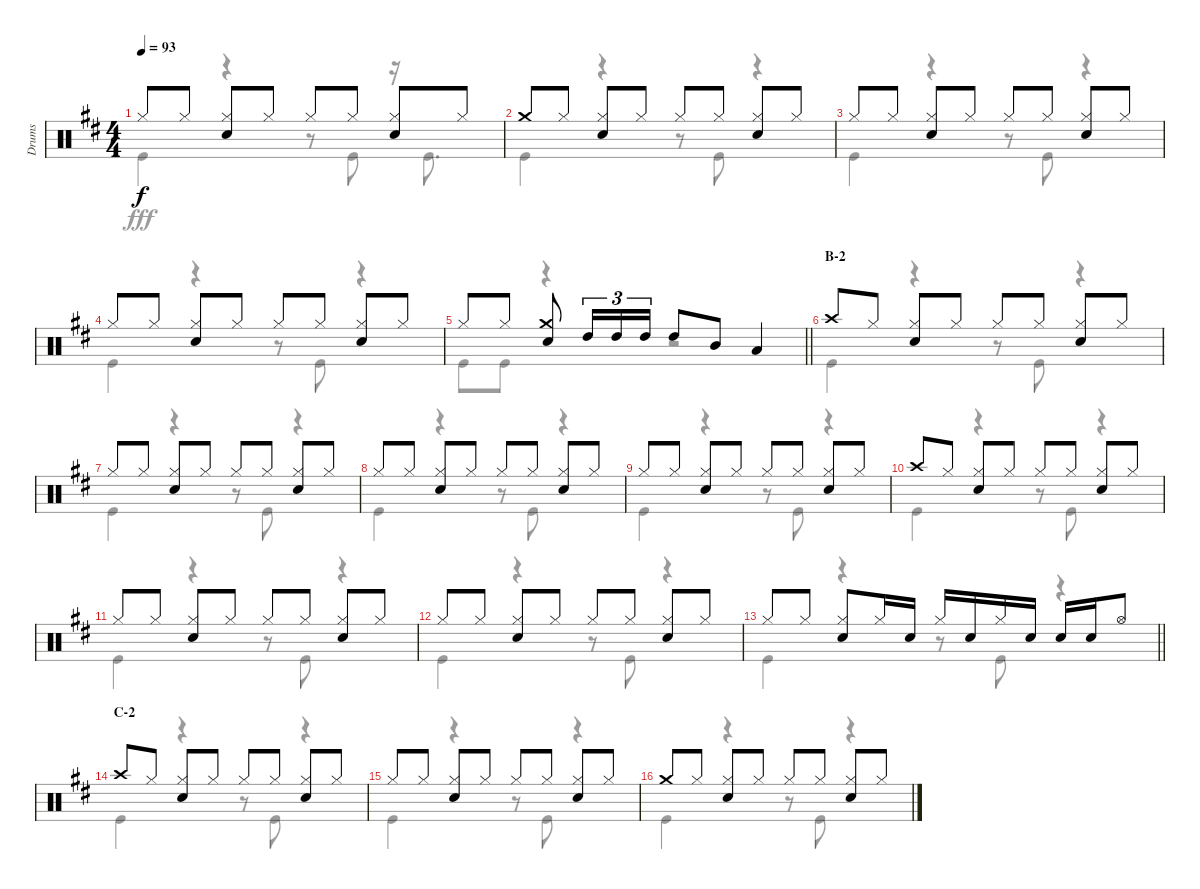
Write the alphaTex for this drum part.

\track ("Drums" "Drums") {instrument percussion}
\staff {score}
\articulation defaults
\voice
\ts (4 4)
\tempo 93
\clef neutral
\ks d "Hi-Hat (closed)".8{dy f} "Hi-Hat (closed)".8
("Hi-Hat (closed)" "Snare (hit) 2").8 "Hi-Hat (closed)".8 "Hi-Hat (closed)".8 "Hi-Hat (closed)".8 ("Hi-Hat (closed)" "Snare (hit) 2").8 "Hi-Hat (closed)".8 |
"Crash medium (hit)".8 "Hi-Hat (closed)".8 ("Hi-Hat (closed)" "Snare (hit) 2").8 "Hi-Hat (closed)".8 "Hi-Hat (closed)".8 "Hi-Hat (closed)".8 ("Hi-Hat (closed)" "Snare (hit) 2").8 "Hi-Hat (closed)".8 |
"Hi-Hat (closed)".8 "Hi-Hat (closed)".8 ("Hi-Hat (closed)" "Snare (hit) 2").8 "Hi-Hat (closed)".8 "Hi-Hat (closed)".8 "Hi-Hat (closed)".8 ("Hi-Hat (closed)" "Snare (hit) 2").8 "Hi-Hat (closed)".8 |
"Hi-Hat (closed)".8 "Hi-Hat (closed)".8 ("Hi-Hat (closed)" "Snare (hit) 2").8 "Hi-Hat (closed)".8 "Hi-Hat (closed)".8 "Hi-Hat (closed)".8 ("Hi-Hat (closed)" "Snare (hit) 2").8 "Hi-Hat (closed)".8 |
\barLineRight lightlight "Hi-Hat (closed)".8 "Hi-Hat (closed)".8
("Crash medium (hit)" "Snare (hit) 2").8 "High Tom (hit)".16{tu (3 2)} "High Tom (hit)".16{tu (3 2)} "High Tom (hit)".16{tu (3 2)} "High Tom (hit)".8 "Mid Tom (hit)".8 "Low Tom (hit)".4 |
\section ("" "B-2")
"Crash high (hit)".8 "Hi-Hat (closed)".8 ("Hi-Hat (closed)" "Snare (hit) 2").8 "Hi-Hat (closed)".8 "Hi-Hat (closed)".8 "Hi-Hat (closed)".8 ("Hi-Hat (closed)" "Snare (hit) 2").8 "Hi-Hat (closed)".8 |
"Hi-Hat (closed)".8 "Hi-Hat (closed)".8 ("Hi-Hat (closed)" "Snare (hit) 2").8 "Hi-Hat (closed)".8 "Hi-Hat (closed)".8 "Hi-Hat (closed)".8 ("Hi-Hat (closed)" "Snare (hit) 2").8 "Hi-Hat (closed)".8 |
"Hi-Hat (closed)".8 "Hi-Hat (closed)".8 ("Hi-Hat (closed)" "Snare (hit) 2").8 "Hi-Hat (closed)".8 "Hi-Hat (closed)".8 "Hi-Hat (closed)".8 ("Hi-Hat (closed)" "Snare (hit) 2").8 "Hi-Hat (closed)".8 |
"Hi-Hat (closed)".8 "Hi-Hat (closed)".8 ("Hi-Hat (closed)" "Snare (hit) 2").8 "Hi-Hat (closed)".8 "Hi-Hat (closed)".8 "Hi-Hat (closed)".8 ("Hi-Hat (closed)" "Snare (hit) 2").8 "Hi-Hat (closed)".8 |
"Crash high (hit)".8 "Hi-Hat (closed)".8 ("Hi-Hat (closed)" "Snare (hit) 2").8 "Hi-Hat (closed)".8 "Hi-Hat (closed)".8 "Hi-Hat (closed)".8 ("Hi-Hat (closed)" "Snare (hit) 2").8 "Hi-Hat (closed)".8 |
"Hi-Hat (closed)".8 "Hi-Hat (closed)".8 ("Hi-Hat (closed)" "Snare (hit) 2").8 "Hi-Hat (closed)".8 "Hi-Hat (closed)".8 "Hi-Hat (closed)".8 ("Hi-Hat (closed)" "Snare (hit) 2").8 "Hi-Hat (closed)".8 |
"Hi-Hat (closed)".8 "Hi-Hat (closed)".8 ("Hi-Hat (closed)" "Snare (hit) 2").8 "Hi-Hat (closed)".8 "Hi-Hat (closed)".8 "Hi-Hat (closed)".8 ("Hi-Hat (closed)" "Snare (hit) 2").8 "Hi-Hat (closed)".8 |
\barLineRight lightlight "Hi-Hat (closed)".8 "Hi-Hat (closed)".8
("Hi-Hat (closed)" "Snare (hit) 2").8 "Hi-Hat (closed)".16 "Snare (hit) 2".16 "Hi-Hat (closed)".16 "Snare (hit) 2".16 "Hi-Hat (closed)".16 "Snare (hit) 2".16 "Snare (hit) 2".16 "Snare (hit) 2".16 "Hi-Hat (open)".8 |
\section ("" "C-2")
"Crash high (hit)".8 "Hi-Hat (closed)".8 ("Hi-Hat (closed)" "Snare (hit) 2").8 "Hi-Hat (closed)".8 "Hi-Hat (closed)".8 "Hi-Hat (closed)".8 ("Hi-Hat (closed)" "Snare (hit) 2").8 "Hi-Hat (closed)".8 |
"Hi-Hat (closed)".8 "Hi-Hat (closed)".8 ("Hi-Hat (closed)" "Snare (hit) 2").8 "Hi-Hat (closed)".8 "Hi-Hat (closed)".8 "Hi-Hat (closed)".8 ("Hi-Hat (closed)" "Snare (hit) 2").8 "Hi-Hat (closed)".8 |
"Crash medium (hit)".8 "Hi-Hat (closed)".8 ("Hi-Hat (closed)" "Snare (hit) 2").8 "Hi-Hat (closed)".8 "Hi-Hat (closed)".8 "Hi-Hat (closed)".8 ("Hi-Hat (closed)" "Snare (hit) 2").8 "Hi-Hat (closed)".8
\voice
\clef neutral
\ottava regular
\simile none
\ks d "Kick (hit)".4{dy fff}
r.4 r.8 "Kick (hit)".8 r.16 "Kick (hit)".8{d} |
"Kick (hit)".4 r.4 r.8 "Kick (hit)".8 r.4 |
"Kick (hit)".4 r.4 r.8 "Kick (hit)".8 r.4 |
"Kick (hit)".4 r.4 r.8 "Kick (hit)".8 r.4 |
\barLineRight lightlight "Kick (hit)".8 "Kick (hit)".8
r.4 r.2 |
"Kick (hit)".4 r.4 r.8 "Kick (hit)".8 r.4 |
"Kick (hit)".4 r.4 r.8 "Kick (hit)".8 r.4 |
"Kick (hit)".4 r.4 r.8 "Kick (hit)".8 r.4 |
"Kick (hit)".4 r.4 r.8 "Kick (hit)".8 r.4 |
"Kick (hit)".4 r.4 r.8 "Kick (hit)".8 r.4 |
"Kick (hit)".4 r.4 r.8 "Kick (hit)".8 r.4 |
"Kick (hit)".4 r.4 r.8 "Kick (hit)".8 r.4 |
\barLineRight lightlight "Kick (hit)".4
r.4 r.8 "Kick (hit)".8 r.4 |
"Kick (hit)".4 r.4 r.8 "Kick (hit)".8 r.4 |
"Kick (hit)".4 r.4 r.8 "Kick (hit)".8 r.4 |
"Kick (hit)".4 r.4 r.8 "Kick (hit)".8 r.4
